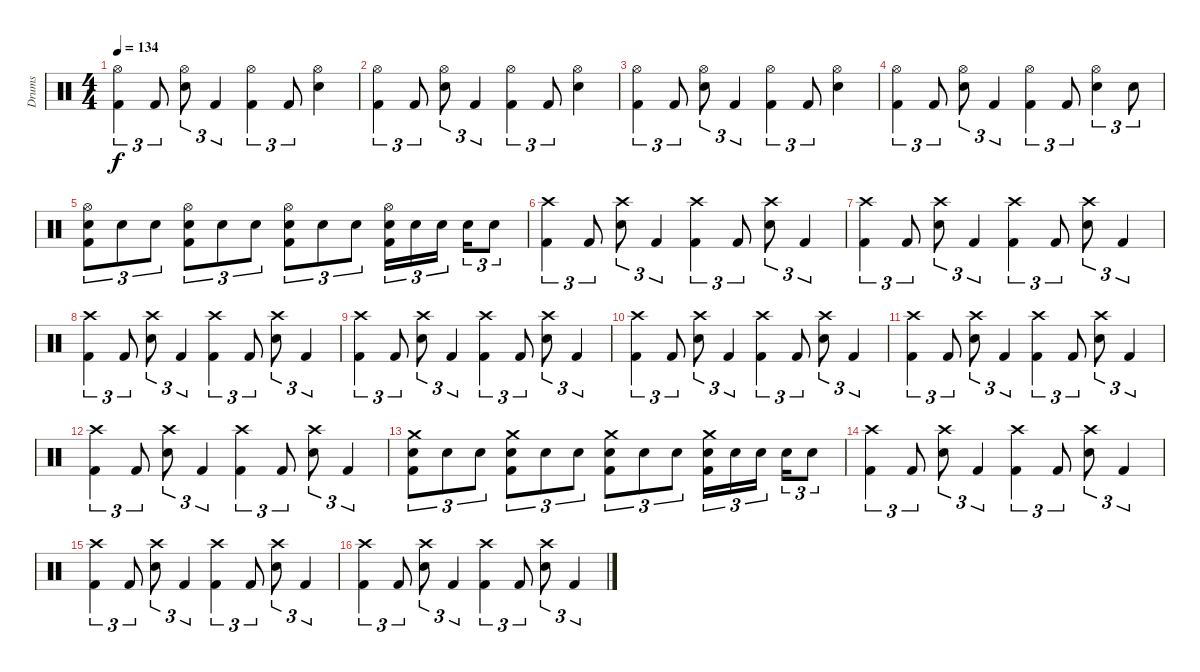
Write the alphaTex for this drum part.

\track ("Drums" "Drums") {instrument percussion}
\staff {score}
\articulation defaults
\ts (4 4)
\tempo 134
\clef neutral
\ks c
("Hi-Hat (open)" "Kick (hit) 2").4{tu (3 2) dy f} "Kick (hit) 2".8{tu (3 2)} ("Hi-Hat (open)" "Electric Snare (hit)").8{tu (3 2)} "Kick (hit) 2".4{tu (3 2)} ("Hi-Hat (open)" "Kick (hit) 2").4{tu (3 2)} "Kick (hit) 2".8{tu (3 2)} ("Hi-Hat (open)" "Electric Snare (hit)").4 |
("Hi-Hat (open)" "Kick (hit) 2").4{tu (3 2)} "Kick (hit) 2".8{tu (3 2)} ("Hi-Hat (open)" "Electric Snare (hit)").8{tu (3 2)} "Kick (hit) 2".4{tu (3 2)} ("Hi-Hat (open)" "Kick (hit) 2").4{tu (3 2)} "Kick (hit) 2".8{tu (3 2)} ("Hi-Hat (open)" "Electric Snare (hit)").4 |
("Hi-Hat (open)" "Kick (hit) 2").4{tu (3 2)} "Kick (hit) 2".8{tu (3 2)} ("Hi-Hat (open)" "Electric Snare (hit)").8{tu (3 2)} "Kick (hit) 2".4{tu (3 2)} ("Hi-Hat (open)" "Kick (hit) 2").4{tu (3 2)} "Kick (hit) 2".8{tu (3 2)} ("Hi-Hat (open)" "Electric Snare (hit)").4 |
("Hi-Hat (open)" "Kick (hit) 2").4{tu (3 2)} "Kick (hit) 2".8{tu (3 2)} ("Hi-Hat (open)" "Electric Snare (hit)").8{tu (3 2)} "Kick (hit) 2".4{tu (3 2)} ("Hi-Hat (open)" "Kick (hit) 2").4{tu (3 2)} "Kick (hit) 2".8{tu (3 2)} ("Hi-Hat (open)" "Electric Snare (hit)").4{tu (3 2)} "Electric Snare (hit)".8{tu (3 2)} |
("Hi-Hat (open)" "Electric Snare (hit)" "Kick (hit) 2").8{tu (3 2)} "Electric Snare (hit)".8{tu (3 2)} "Electric Snare (hit)".8{tu (3 2)} ("Hi-Hat (open)" "Electric Snare (hit)" "Kick (hit) 2").8{tu (3 2)} "Electric Snare (hit)".8{tu (3 2)} "Electric Snare (hit)".8{tu (3 2)} ("Hi-Hat (open)" "Electric Snare (hit)" "Kick (hit) 2").8{tu (3 2)} "Electric Snare (hit)".8{tu (3 2)} "Electric Snare (hit)".8{tu (3 2)} ("Hi-Hat (open)" "Electric Snare (hit)" "Kick (hit) 2").16{tu (3 2)} "Electric Snare (hit)".16{tu (3 2)} "Electric Snare (hit)".16{tu (3 2)} "Electric Snare (hit)".16{tu (3 2)} "Electric Snare (hit)".8{tu (3 2)} |
("Crash high (hit)" "Kick (hit) 2").4{tu (3 2)} "Kick (hit) 2".8{tu (3 2)} ("Crash high (hit)" "Electric Snare (hit)").8{tu (3 2)} "Kick (hit) 2".4{tu (3 2)} ("Crash high (hit)" "Kick (hit) 2").4{tu (3 2)} "Kick (hit) 2".8{tu (3 2)} ("Crash high (hit)" "Electric Snare (hit)").8{tu (3 2)} "Kick (hit) 2".4{tu (3 2)} |
("Crash high (hit)" "Kick (hit) 2").4{tu (3 2)} "Kick (hit) 2".8{tu (3 2)} ("Crash high (hit)" "Electric Snare (hit)").8{tu (3 2)} "Kick (hit) 2".4{tu (3 2)} ("Crash high (hit)" "Kick (hit) 2").4{tu (3 2)} "Kick (hit) 2".8{tu (3 2)} ("Crash high (hit)" "Electric Snare (hit)").8{tu (3 2)} "Kick (hit) 2".4{tu (3 2)} |
("Crash high (hit)" "Kick (hit) 2").4{tu (3 2)} "Kick (hit) 2".8{tu (3 2)} ("Crash high (hit)" "Electric Snare (hit)").8{tu (3 2)} "Kick (hit) 2".4{tu (3 2)} ("Crash high (hit)" "Kick (hit) 2").4{tu (3 2)} "Kick (hit) 2".8{tu (3 2)} ("Crash high (hit)" "Electric Snare (hit)").8{tu (3 2)} "Kick (hit) 2".4{tu (3 2)} |
("Crash high (hit)" "Kick (hit) 2").4{tu (3 2)} "Kick (hit) 2".8{tu (3 2)} ("Crash high (hit)" "Electric Snare (hit)").8{tu (3 2)} "Kick (hit) 2".4{tu (3 2)} ("Crash high (hit)" "Kick (hit) 2").4{tu (3 2)} "Kick (hit) 2".8{tu (3 2)} ("Crash high (hit)" "Electric Snare (hit)").8{tu (3 2)} "Kick (hit) 2".4{tu (3 2)} |
("Crash high (hit)" "Kick (hit) 2").4{tu (3 2)} "Kick (hit) 2".8{tu (3 2)} ("Crash high (hit)" "Electric Snare (hit)").8{tu (3 2)} "Kick (hit) 2".4{tu (3 2)} ("Crash high (hit)" "Kick (hit) 2").4{tu (3 2)} "Kick (hit) 2".8{tu (3 2)} ("Crash high (hit)" "Electric Snare (hit)").8{tu (3 2)} "Kick (hit) 2".4{tu (3 2)} |
("Crash high (hit)" "Kick (hit) 2").4{tu (3 2)} "Kick (hit) 2".8{tu (3 2)} ("Crash high (hit)" "Electric Snare (hit)").8{tu (3 2)} "Kick (hit) 2".4{tu (3 2)} ("Crash high (hit)" "Kick (hit) 2").4{tu (3 2)} "Kick (hit) 2".8{tu (3 2)} ("Crash high (hit)" "Electric Snare (hit)").8{tu (3 2)} "Kick (hit) 2".4{tu (3 2)} |
("Crash high (hit)" "Kick (hit) 2").4{tu (3 2)} "Kick (hit) 2".8{tu (3 2)} ("Crash high (hit)" "Electric Snare (hit)").8{tu (3 2)} "Kick (hit) 2".4{tu (3 2)} ("Crash high (hit)" "Kick (hit) 2").4{tu (3 2)} "Kick (hit) 2".8{tu (3 2)} ("Crash high (hit)" "Electric Snare (hit)").8{tu (3 2)} "Kick (hit) 2".4{tu (3 2)} |
("Crash medium (hit)" "Electric Snare (hit)" "Kick (hit) 2").8{tu (3 2)} "Electric Snare (hit)".8{tu (3 2)} "Electric Snare (hit)".8{tu (3 2)} ("Crash medium (hit)" "Electric Snare (hit)" "Kick (hit) 2").8{tu (3 2)} "Electric Snare (hit)".8{tu (3 2)} "Electric Snare (hit)".8{tu (3 2)} ("Crash medium (hit)" "Electric Snare (hit)" "Kick (hit) 2").8{tu (3 2)} "Electric Snare (hit)".8{tu (3 2)} "Electric Snare (hit)".8{tu (3 2)} ("Crash medium (hit)" "Electric Snare (hit)" "Kick (hit) 2").16{tu (3 2)} "Electric Snare (hit)".16{tu (3 2)} "Electric Snare (hit)".16{tu (3 2)} "Electric Snare (hit)".16{tu (3 2)} "Electric Snare (hit)".8{tu (3 2)} |
("Crash high (hit)" "Kick (hit) 2").4{tu (3 2)} "Kick (hit) 2".8{tu (3 2)} ("Crash high (hit)" "Electric Snare (hit)").8{tu (3 2)} "Kick (hit) 2".4{tu (3 2)} ("Crash high (hit)" "Kick (hit) 2").4{tu (3 2)} "Kick (hit) 2".8{tu (3 2)} ("Crash high (hit)" "Electric Snare (hit)").8{tu (3 2)} "Kick (hit) 2".4{tu (3 2)} |
("Crash high (hit)" "Kick (hit) 2").4{tu (3 2)} "Kick (hit) 2".8{tu (3 2)} ("Crash high (hit)" "Electric Snare (hit)").8{tu (3 2)} "Kick (hit) 2".4{tu (3 2)} ("Crash high (hit)" "Kick (hit) 2").4{tu (3 2)} "Kick (hit) 2".8{tu (3 2)} ("Crash high (hit)" "Electric Snare (hit)").8{tu (3 2)} "Kick (hit) 2".4{tu (3 2)} |
("Crash high (hit)" "Kick (hit) 2").4{tu (3 2)} "Kick (hit) 2".8{tu (3 2)} ("Crash high (hit)" "Electric Snare (hit)").8{tu (3 2)} "Kick (hit) 2".4{tu (3 2)} ("Crash high (hit)" "Kick (hit) 2").4{tu (3 2)} "Kick (hit) 2".8{tu (3 2)} ("Crash high (hit)" "Electric Snare (hit)").8{tu (3 2)} "Kick (hit) 2".4{tu (3 2)}
